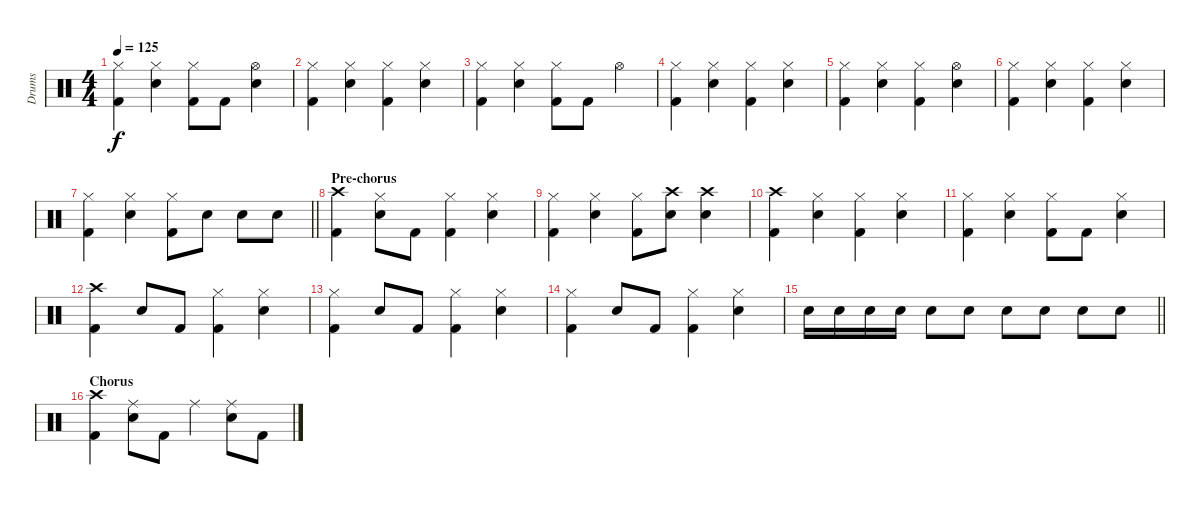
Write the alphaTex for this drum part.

\track ("Drums" "Drums") {instrument percussion}
\staff {score}
\articulation defaults
\ts (4 4)
\tempo 125
\clef neutral
\ks c
("Hi-Hat (closed)" "Kick (hit) 2").4{dy f} ("Hi-Hat (closed)" "Electric Snare (hit)").4 ("Hi-Hat (closed)" "Kick (hit) 2").8 "Kick (hit) 2".8 ("Hi-Hat (open)" "Electric Snare (hit)").4 |
("Hi-Hat (closed)" "Kick (hit) 2").4 ("Hi-Hat (closed)" "Electric Snare (hit)").4 ("Hi-Hat (closed)" "Kick (hit) 2").4 ("Hi-Hat (closed)" "Electric Snare (hit)").4 |
("Hi-Hat (closed)" "Kick (hit) 2").4 ("Hi-Hat (closed)" "Electric Snare (hit)").4 ("Hi-Hat (closed)" "Kick (hit) 2").8 "Kick (hit) 2".8 "Hi-Hat (open)".4 |
("Hi-Hat (closed)" "Kick (hit) 2").4 ("Hi-Hat (closed)" "Electric Snare (hit)").4 ("Hi-Hat (closed)" "Kick (hit) 2").4 ("Hi-Hat (closed)" "Electric Snare (hit)").4 |
("Hi-Hat (closed)" "Kick (hit) 2").4 ("Hi-Hat (closed)" "Electric Snare (hit)").4 ("Hi-Hat (closed)" "Kick (hit) 2").4 ("Hi-Hat (open)" "Electric Snare (hit)").4 |
("Hi-Hat (closed)" "Kick (hit) 2").4 ("Hi-Hat (closed)" "Electric Snare (hit)").4 ("Hi-Hat (closed)" "Kick (hit) 2").4 ("Hi-Hat (closed)" "Electric Snare (hit)").4 |
\barLineRight lightlight
("Hi-Hat (closed)" "Kick (hit) 2").4 ("Hi-Hat (closed)" "Electric Snare (hit)").4 ("Hi-Hat (closed)" "Kick (hit) 2").8 "Electric Snare (hit)".8 "Electric Snare (hit)".8 "Electric Snare (hit)".8 |
\section ("" "Pre-chorus")
("Crash high (hit)" "Kick (hit) 2").4 ("Hi-Hat (closed)" "Electric Snare (hit)").8 "Kick (hit) 2".8 ("Hi-Hat (closed)" "Kick (hit) 2").4 ("Hi-Hat (closed)" "Electric Snare (hit)").4 |
("Hi-Hat (closed)" "Kick (hit) 2").4 ("Hi-Hat (closed)" "Electric Snare (hit)").4 ("Hi-Hat (closed)" "Kick (hit) 2").8 ("Crash high (hit)" "Electric Snare (hit)").8 ("Crash high (hit)" "Electric Snare (hit)").4 |
("Crash high (hit)" "Kick (hit) 2").4 ("Hi-Hat (closed)" "Electric Snare (hit)").4 ("Hi-Hat (closed)" "Kick (hit) 2").4 ("Hi-Hat (closed)" "Electric Snare (hit)").4 |
("Hi-Hat (closed)" "Kick (hit) 2").4 ("Hi-Hat (closed)" "Electric Snare (hit)").4 ("Hi-Hat (closed)" "Kick (hit) 2").8 "Kick (hit) 2".8 ("Hi-Hat (closed)" "Electric Snare (hit)").4 |
("Crash high (hit)" "Kick (hit) 2").4 "Electric Snare (hit)".8 "Kick (hit) 2".8 ("Hi-Hat (closed)" "Kick (hit) 2").4 ("Hi-Hat (closed)" "Electric Snare (hit)").4 |
("Hi-Hat (closed)" "Kick (hit) 2").4 "Electric Snare (hit)".8 "Kick (hit) 2".8 ("Hi-Hat (closed)" "Kick (hit) 2").4 ("Hi-Hat (closed)" "Electric Snare (hit)").4 |
("Hi-Hat (closed)" "Kick (hit) 2").4 "Electric Snare (hit)".8 "Kick (hit) 2".8 ("Hi-Hat (closed)" "Kick (hit) 2").4 ("Hi-Hat (closed)" "Electric Snare (hit)").4 |
\barLineRight lightlight "Electric Snare (hit)".16 "Electric Snare (hit)".16 "Electric Snare (hit)".16 "Electric Snare (hit)".16 "Electric Snare (hit)".8 "Electric Snare (hit)".8 "Electric Snare (hit)".8 "Electric Snare (hit)".8 "Electric Snare (hit)".8 "Electric Snare (hit)".8
|
\section ("" "Chorus")
("Crash high (hit)" "Kick (hit) 2").4 ("Ride (middle)" "Electric Snare (hit)").8 "Kick (hit) 2".8 "Ride (middle)".4 ("Ride (middle)" "Electric Snare (hit)").8 "Kick (hit) 2".8
